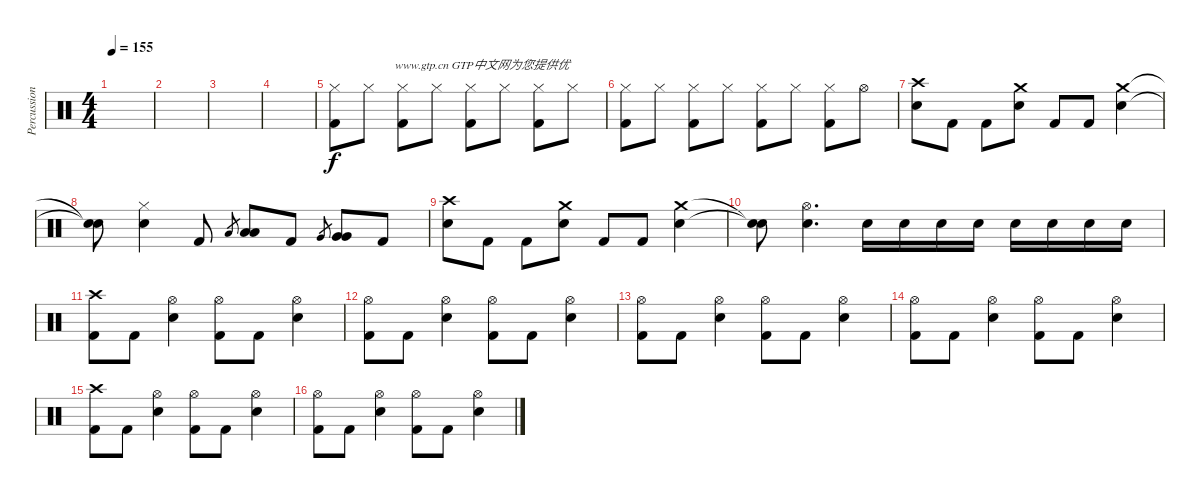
\track ("Percussion" "Percussion") {instrument percussion}
\staff {score}
\articulation defaults
\ts (4 4)
\tempo 155
\clef neutral
\ks c
|
|
|
|
("Hi-Hat (closed)" "Kick (hit) 2").8{txt "                    www.gtp.cn GTP中文网为您提供优"} "Hi-Hat (closed)".8 ("Hi-Hat (closed)" "Kick (hit) 2").8 "Hi-Hat (closed)".8 ("Hi-Hat (closed)" "Kick (hit) 2").8 "Hi-Hat (closed)".8 ("Hi-Hat (closed)" "Kick (hit) 2").8 "Hi-Hat (closed)".8 |
("Hi-Hat (closed)" "Kick (hit) 2").8 "Hi-Hat (closed)".8 ("Hi-Hat (closed)" "Kick (hit) 2").8 "Hi-Hat (closed)".8 ("Hi-Hat (closed)" "Kick (hit) 2").8 "Hi-Hat (closed)".8 ("Hi-Hat (closed)" "Kick (hit) 2").8 "Hi-Hat (open)".8 |
("Crash high (hit)" "Electric Snare (hit)").8 "Kick (hit) 2".8 "Kick (hit) 2".8 ("Crash medium (hit)" "Electric Snare (hit)").8 "Kick (hit) 2".8 "Kick (hit) 2".8 ("Crash medium (hit)" "Electric Snare (hit)").4 |
("Snare (hit)"{t} "Snare (hit)"{t}).8 ("Hi-Hat (closed)" "Electric Snare (hit)").4 "Kick (hit) 2".8 "Low Tom (hit)".8{gr} ("Low Tom (hit)" "Low Tom (hit)").8 "Kick (hit) 2".8 "Very Low Tom (hit)".8{gr} ("Very Low Tom (hit)" "Very Low Tom (hit)").8 "Kick (hit) 2".8 |
("Crash high (hit)" "Electric Snare (hit)").8 "Kick (hit) 2".8 "Kick (hit) 2".8 ("Crash medium (hit)" "Electric Snare (hit)").8 "Kick (hit) 2".8 "Kick (hit) 2".8 ("Crash medium (hit)" "Electric Snare (hit)").4 |
("Snare (hit)"{t} "Snare (hit)"{t}).8 ("Hi-Hat (open)" "Electric Snare (hit)").4{d} "Electric Snare (hit)".16 "Electric Snare (hit)".16 "Electric Snare (hit)".16 "Electric Snare (hit)".16 "Electric Snare (hit)".16 "Electric Snare (hit)".16 "Electric Snare (hit)".16 "Electric Snare (hit)".16 |
("Crash high (hit)" "Kick (hit) 2").8 "Kick (hit) 2".8 ("Hi-Hat (open)" "Electric Snare (hit)").4 ("Hi-Hat (open)" "Kick (hit) 2").8 "Kick (hit) 2".8 ("Hi-Hat (open)" "Electric Snare (hit)").4 |
("Hi-Hat (open)" "Kick (hit) 2").8 "Kick (hit) 2".8 ("Hi-Hat (open)" "Electric Snare (hit)").4 ("Hi-Hat (open)" "Kick (hit) 2").8 "Kick (hit) 2".8 ("Hi-Hat (open)" "Electric Snare (hit)").4 |
("Hi-Hat (open)" "Kick (hit) 2").8 "Kick (hit) 2".8 ("Hi-Hat (open)" "Electric Snare (hit)").4 ("Hi-Hat (open)" "Kick (hit) 2").8 "Kick (hit) 2".8 ("Hi-Hat (open)" "Electric Snare (hit)").4 |
("Hi-Hat (open)" "Kick (hit) 2").8 "Kick (hit) 2".8 ("Hi-Hat (open)" "Electric Snare (hit)").4 ("Hi-Hat (open)" "Kick (hit) 2").8 "Kick (hit) 2".8 ("Hi-Hat (open)" "Electric Snare (hit)").4 |
("Crash high (hit)" "Kick (hit) 2").8 "Kick (hit) 2".8 ("Hi-Hat (open)" "Electric Snare (hit)").4 ("Hi-Hat (open)" "Kick (hit) 2").8 "Kick (hit) 2".8 ("Hi-Hat (open)" "Electric Snare (hit)").4 |
("Hi-Hat (open)" "Kick (hit) 2").8 "Kick (hit) 2".8 ("Hi-Hat (open)" "Electric Snare (hit)").4 ("Hi-Hat (open)" "Kick (hit) 2").8 "Kick (hit) 2".8 ("Hi-Hat (open)" "Electric Snare (hit)").4
